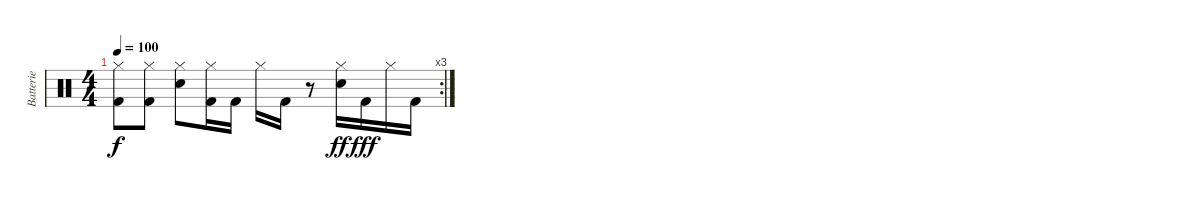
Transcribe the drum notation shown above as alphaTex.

\track ("Batterie" "Batterie") {instrument percussion}
\staff {score}
\articulation defaults
\rc 3
\ts (4 4)
\tempo 100
\clef neutral
\ks c
("Hi-Hat (closed)" "Kick (hit) 2").8{dy f} ("Hi-Hat (closed)" "Kick (hit) 2").8 ("Hi-Hat (closed)" "Snare (hit) 2").8 ("Hi-Hat (closed)" "Kick (hit) 2").16 "Kick (hit) 2".16 "Hi-Hat (closed)".16 "Kick (hit) 2".16 r.8 ("Hi-Hat (closed)" "Snare (hit) 2").16{dy ff} "Kick (hit) 2".16{dy fff} "Hi-Hat (closed)".16 "Kick (hit) 2".16
